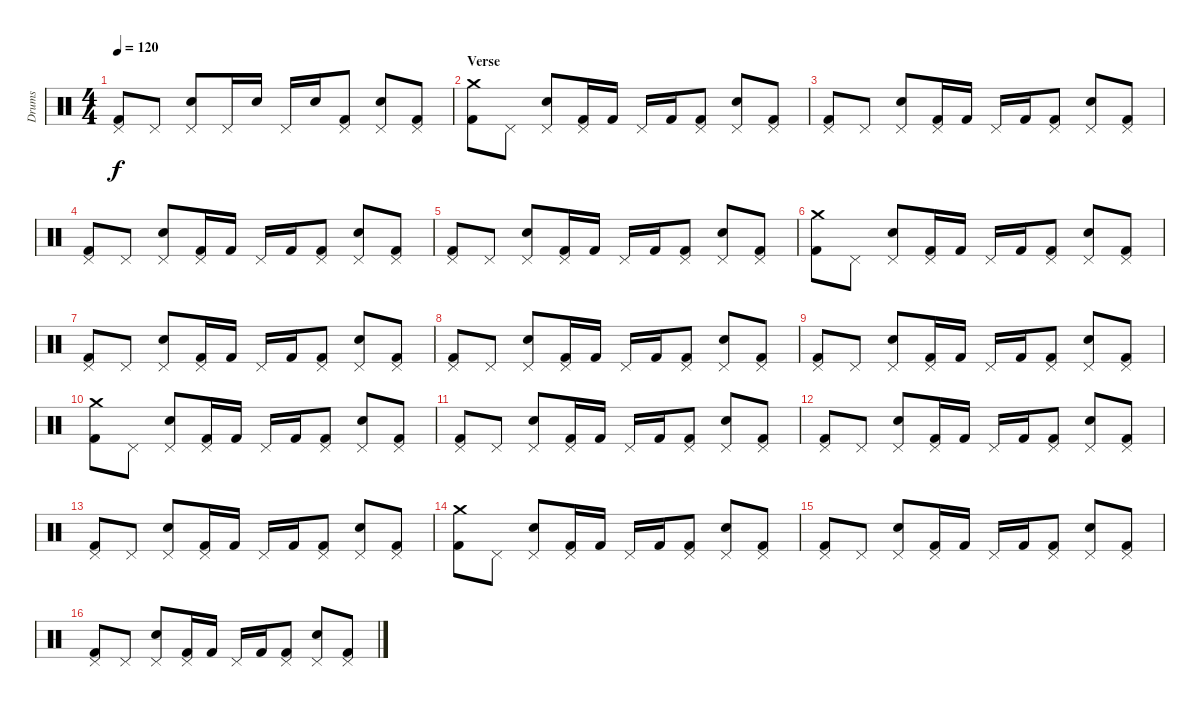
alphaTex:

\track ("Drums" "Drums") {instrument percussion}
\staff {score}
\articulation defaults
\ts (4 4)
\tempo 120
\clef neutral
\ks c
("Pedal Hi-Hat (hit)" "Kick (hit) 2").8{dy f} "Pedal Hi-Hat (hit)".8 ("Pedal Hi-Hat (hit)" "Electric Snare (hit)").8 "Pedal Hi-Hat (hit)".16 "Electric Snare (hit)".16 "Pedal Hi-Hat (hit)".16 "Electric Snare (hit)".16 ("Pedal Hi-Hat (hit)" "Kick (hit) 2").8 ("Pedal Hi-Hat (hit)" "Electric Snare (hit)").8 ("Pedal Hi-Hat (hit)" "Kick (hit) 2").8 |
\section ("" "Verse")
("Crash medium (hit)" "Kick (hit) 2").8 "Pedal Hi-Hat (hit)".8 ("Pedal Hi-Hat (hit)" "Electric Snare (hit)").8 ("Pedal Hi-Hat (hit)" "Kick (hit) 2").16 "Kick (hit) 2".16 "Pedal Hi-Hat (hit)".16 "Kick (hit) 2".16 ("Pedal Hi-Hat (hit)" "Kick (hit) 2").8 ("Pedal Hi-Hat (hit)" "Electric Snare (hit)").8 ("Pedal Hi-Hat (hit)" "Kick (hit) 2").8 |
("Pedal Hi-Hat (hit)" "Kick (hit) 2").8 "Pedal Hi-Hat (hit)".8 ("Pedal Hi-Hat (hit)" "Electric Snare (hit)").8 ("Pedal Hi-Hat (hit)" "Kick (hit) 2").16 "Kick (hit) 2".16 "Pedal Hi-Hat (hit)".16 "Kick (hit) 2".16 ("Pedal Hi-Hat (hit)" "Kick (hit) 2").8 ("Pedal Hi-Hat (hit)" "Electric Snare (hit)").8 ("Pedal Hi-Hat (hit)" "Kick (hit) 2").8 |
("Pedal Hi-Hat (hit)" "Kick (hit) 2").8 "Pedal Hi-Hat (hit)".8 ("Pedal Hi-Hat (hit)" "Electric Snare (hit)").8 ("Pedal Hi-Hat (hit)" "Kick (hit) 2").16 "Kick (hit) 2".16 "Pedal Hi-Hat (hit)".16 "Kick (hit) 2".16 ("Pedal Hi-Hat (hit)" "Kick (hit) 2").8 ("Pedal Hi-Hat (hit)" "Electric Snare (hit)").8 ("Pedal Hi-Hat (hit)" "Kick (hit) 2").8 |
("Pedal Hi-Hat (hit)" "Kick (hit) 2").8 "Pedal Hi-Hat (hit)".8 ("Pedal Hi-Hat (hit)" "Electric Snare (hit)").8 ("Pedal Hi-Hat (hit)" "Kick (hit) 2").16 "Kick (hit) 2".16 "Pedal Hi-Hat (hit)".16 "Kick (hit) 2".16 ("Pedal Hi-Hat (hit)" "Kick (hit) 2").8 ("Pedal Hi-Hat (hit)" "Electric Snare (hit)").8 ("Pedal Hi-Hat (hit)" "Kick (hit) 2").8 |
("Crash medium (hit)" "Kick (hit) 2").8 "Pedal Hi-Hat (hit)".8 ("Pedal Hi-Hat (hit)" "Electric Snare (hit)").8 ("Pedal Hi-Hat (hit)" "Kick (hit) 2").16 "Kick (hit) 2".16 "Pedal Hi-Hat (hit)".16 "Kick (hit) 2".16 ("Pedal Hi-Hat (hit)" "Kick (hit) 2").8 ("Pedal Hi-Hat (hit)" "Electric Snare (hit)").8 ("Pedal Hi-Hat (hit)" "Kick (hit) 2").8 |
("Pedal Hi-Hat (hit)" "Kick (hit) 2").8 "Pedal Hi-Hat (hit)".8 ("Pedal Hi-Hat (hit)" "Electric Snare (hit)").8 ("Pedal Hi-Hat (hit)" "Kick (hit) 2").16 "Kick (hit) 2".16 "Pedal Hi-Hat (hit)".16 "Kick (hit) 2".16 ("Pedal Hi-Hat (hit)" "Kick (hit) 2").8 ("Pedal Hi-Hat (hit)" "Electric Snare (hit)").8 ("Pedal Hi-Hat (hit)" "Kick (hit) 2").8 |
("Pedal Hi-Hat (hit)" "Kick (hit) 2").8 "Pedal Hi-Hat (hit)".8 ("Pedal Hi-Hat (hit)" "Electric Snare (hit)").8 ("Pedal Hi-Hat (hit)" "Kick (hit) 2").16 "Kick (hit) 2".16 "Pedal Hi-Hat (hit)".16 "Kick (hit) 2".16 ("Pedal Hi-Hat (hit)" "Kick (hit) 2").8 ("Pedal Hi-Hat (hit)" "Electric Snare (hit)").8 ("Pedal Hi-Hat (hit)" "Kick (hit) 2").8 |
("Pedal Hi-Hat (hit)" "Kick (hit) 2").8 "Pedal Hi-Hat (hit)".8 ("Pedal Hi-Hat (hit)" "Electric Snare (hit)").8 ("Pedal Hi-Hat (hit)" "Kick (hit) 2").16 "Kick (hit) 2".16 "Pedal Hi-Hat (hit)".16 "Kick (hit) 2".16 ("Pedal Hi-Hat (hit)" "Kick (hit) 2").8 ("Pedal Hi-Hat (hit)" "Electric Snare (hit)").8 ("Pedal Hi-Hat (hit)" "Kick (hit) 2").8 |
("Crash medium (hit)" "Kick (hit) 2").8 "Pedal Hi-Hat (hit)".8 ("Pedal Hi-Hat (hit)" "Electric Snare (hit)").8 ("Pedal Hi-Hat (hit)" "Kick (hit) 2").16 "Kick (hit) 2".16 "Pedal Hi-Hat (hit)".16 "Kick (hit) 2".16 ("Pedal Hi-Hat (hit)" "Kick (hit) 2").8 ("Pedal Hi-Hat (hit)" "Electric Snare (hit)").8 ("Pedal Hi-Hat (hit)" "Kick (hit) 2").8 |
("Pedal Hi-Hat (hit)" "Kick (hit) 2").8 "Pedal Hi-Hat (hit)".8 ("Pedal Hi-Hat (hit)" "Electric Snare (hit)").8 ("Pedal Hi-Hat (hit)" "Kick (hit) 2").16 "Kick (hit) 2".16 "Pedal Hi-Hat (hit)".16 "Kick (hit) 2".16 ("Pedal Hi-Hat (hit)" "Kick (hit) 2").8 ("Pedal Hi-Hat (hit)" "Electric Snare (hit)").8 ("Pedal Hi-Hat (hit)" "Kick (hit) 2").8 |
("Pedal Hi-Hat (hit)" "Kick (hit) 2").8 "Pedal Hi-Hat (hit)".8 ("Pedal Hi-Hat (hit)" "Electric Snare (hit)").8 ("Pedal Hi-Hat (hit)" "Kick (hit) 2").16 "Kick (hit) 2".16 "Pedal Hi-Hat (hit)".16 "Kick (hit) 2".16 ("Pedal Hi-Hat (hit)" "Kick (hit) 2").8 ("Pedal Hi-Hat (hit)" "Electric Snare (hit)").8 ("Pedal Hi-Hat (hit)" "Kick (hit) 2").8 |
("Pedal Hi-Hat (hit)" "Kick (hit) 2").8 "Pedal Hi-Hat (hit)".8 ("Pedal Hi-Hat (hit)" "Electric Snare (hit)").8 ("Pedal Hi-Hat (hit)" "Kick (hit) 2").16 "Kick (hit) 2".16 "Pedal Hi-Hat (hit)".16 "Kick (hit) 2".16 ("Pedal Hi-Hat (hit)" "Kick (hit) 2").8 ("Pedal Hi-Hat (hit)" "Electric Snare (hit)").8 ("Pedal Hi-Hat (hit)" "Kick (hit) 2").8 |
("Crash medium (hit)" "Kick (hit) 2").8 "Pedal Hi-Hat (hit)".8 ("Pedal Hi-Hat (hit)" "Electric Snare (hit)").8 ("Pedal Hi-Hat (hit)" "Kick (hit) 2").16 "Kick (hit) 2".16 "Pedal Hi-Hat (hit)".16 "Kick (hit) 2".16 ("Pedal Hi-Hat (hit)" "Kick (hit) 2").8 ("Pedal Hi-Hat (hit)" "Electric Snare (hit)").8 ("Pedal Hi-Hat (hit)" "Kick (hit) 2").8 |
("Pedal Hi-Hat (hit)" "Kick (hit) 2").8 "Pedal Hi-Hat (hit)".8 ("Pedal Hi-Hat (hit)" "Electric Snare (hit)").8 ("Pedal Hi-Hat (hit)" "Kick (hit) 2").16 "Kick (hit) 2".16 "Pedal Hi-Hat (hit)".16 "Kick (hit) 2".16 ("Pedal Hi-Hat (hit)" "Kick (hit) 2").8 ("Pedal Hi-Hat (hit)" "Electric Snare (hit)").8 ("Pedal Hi-Hat (hit)" "Kick (hit) 2").8 |
("Pedal Hi-Hat (hit)" "Kick (hit) 2").8 "Pedal Hi-Hat (hit)".8 ("Pedal Hi-Hat (hit)" "Electric Snare (hit)").8 ("Pedal Hi-Hat (hit)" "Kick (hit) 2").16 "Kick (hit) 2".16 "Pedal Hi-Hat (hit)".16 "Kick (hit) 2".16 ("Pedal Hi-Hat (hit)" "Kick (hit) 2").8 ("Pedal Hi-Hat (hit)" "Electric Snare (hit)").8 ("Pedal Hi-Hat (hit)" "Kick (hit) 2").8
